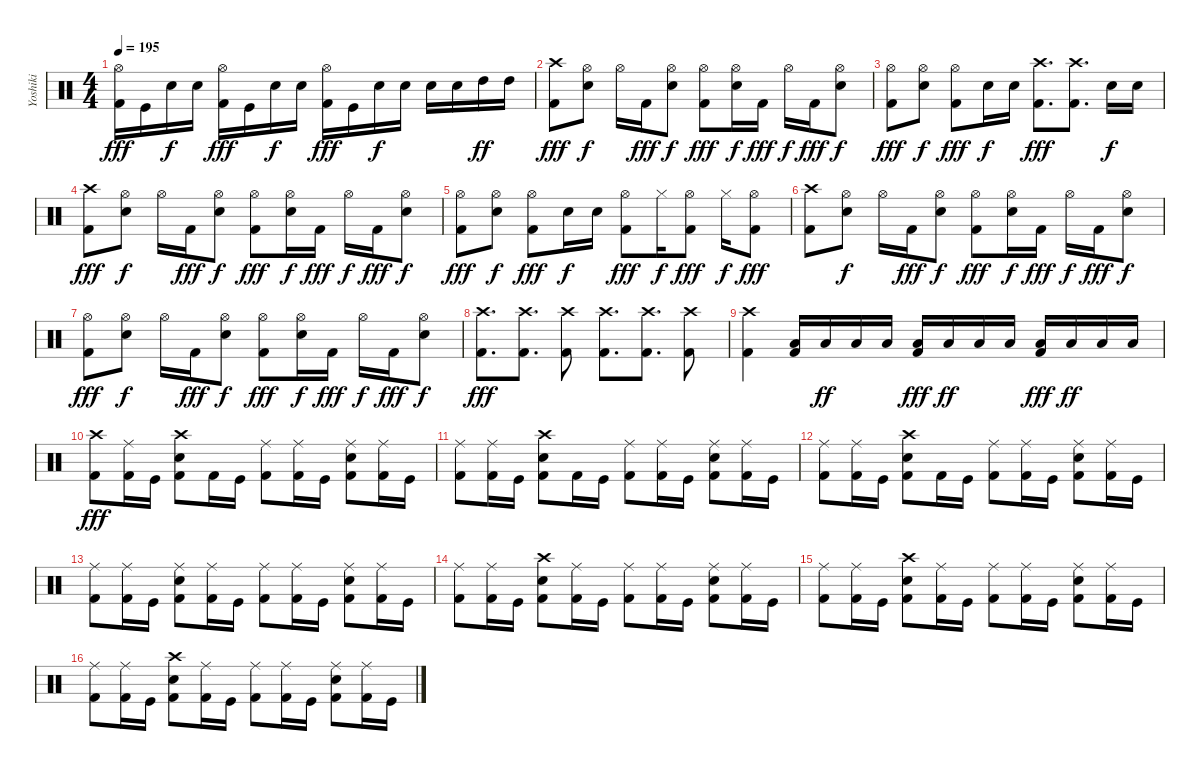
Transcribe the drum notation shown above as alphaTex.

\track ("Yoshiki" "Yoshiki") {instrument percussion}
\staff {score}
\articulation defaults
\ts (4 4)
\tempo 195
\clef neutral
\ks c
("Hi-Hat (open)" "Kick (hit) 2").16{dy fff} "Kick (hit)".16 "Electric Snare (hit)".16{dy f} "Electric Snare (hit)".16 ("Hi-Hat (open)" "Kick (hit) 2").16{dy fff} "Kick (hit)".16 "Electric Snare (hit)".16{dy f} "Electric Snare (hit)".16 ("Hi-Hat (open)" "Kick (hit) 2").16{dy fff} "Kick (hit)".16 "Electric Snare (hit)".16{dy f} "Electric Snare (hit)".16 "Electric Snare (hit)".16 "Electric Snare (hit)".16 "High Tom (hit)".16{dy ff} "High Tom (hit)".16 |
("Crash high (hit)" "Kick (hit) 2").8{dy fff} ("Hi-Hat (open)" "Electric Snare (hit)").8{dy f} "Hi-Hat (open)".16 "Kick (hit) 2".16{dy fff} ("Hi-Hat (open)" "Electric Snare (hit)").8{dy f} ("Hi-Hat (open)" "Kick (hit) 2").8{dy fff} ("Hi-Hat (open)" "Electric Snare (hit)").16{dy f} "Kick (hit) 2".16{dy fff} "Hi-Hat (open)".16{dy f} "Kick (hit) 2".16{dy fff} ("Hi-Hat (open)" "Electric Snare (hit)").8{dy f} |
("Hi-Hat (open)" "Kick (hit) 2").8{dy fff} ("Hi-Hat (open)" "Electric Snare (hit)").8{dy f} ("Hi-Hat (open)" "Kick (hit) 2").8{dy fff} "Electric Snare (hit)".16{dy f} "Electric Snare (hit)".16 ("Crash high (hit)" "Kick (hit) 2").8{d dy fff} ("Crash high (hit)" "Kick (hit) 2").8{d} "Electric Snare (hit)".16{dy f} "Electric Snare (hit)".16 |
("Crash high (hit)" "Kick (hit) 2").8{dy fff} ("Hi-Hat (open)" "Electric Snare (hit)").8{dy f} "Hi-Hat (open)".16 "Kick (hit) 2".16{dy fff} ("Hi-Hat (open)" "Electric Snare (hit)").8{dy f} ("Hi-Hat (open)" "Kick (hit) 2").8{dy fff} ("Hi-Hat (open)" "Electric Snare (hit)").16{dy f} "Kick (hit) 2".16{dy fff} "Hi-Hat (open)".16{dy f} "Kick (hit) 2".16{dy fff} ("Hi-Hat (open)" "Electric Snare (hit)").8{dy f} |
("Hi-Hat (open)" "Kick (hit) 2").8{dy fff} ("Hi-Hat (open)" "Electric Snare (hit)").8{dy f} ("Hi-Hat (open)" "Kick (hit) 2").8{dy fff} "Electric Snare (hit)".16{dy f} "Electric Snare (hit)".16 ("Hi-Hat (open)" "Kick (hit) 2").8{dy fff} "Hi-Hat (closed)".16{dy f} ("Hi-Hat (open)" "Kick (hit) 2").8{dy fff} "Hi-Hat (closed)".16{dy f} ("Hi-Hat (open)" "Kick (hit) 2").8{dy fff} |
("Crash high (hit)" "Kick (hit) 2").8 ("Hi-Hat (open)" "Electric Snare (hit)").8{dy f} "Hi-Hat (open)".16 "Kick (hit) 2".16{dy fff} ("Hi-Hat (open)" "Electric Snare (hit)").8{dy f} ("Hi-Hat (open)" "Kick (hit) 2").8{dy fff} ("Hi-Hat (open)" "Electric Snare (hit)").16{dy f} "Kick (hit) 2".16{dy fff} "Hi-Hat (open)".16{dy f} "Kick (hit) 2".16{dy fff} ("Hi-Hat (open)" "Electric Snare (hit)").8{dy f} |
("Hi-Hat (open)" "Kick (hit) 2").8{dy fff} ("Hi-Hat (open)" "Electric Snare (hit)").8{dy f} "Hi-Hat (open)".16 "Kick (hit) 2".16{dy fff} ("Hi-Hat (open)" "Electric Snare (hit)").8{dy f} ("Hi-Hat (open)" "Kick (hit) 2").8{dy fff} ("Hi-Hat (open)" "Electric Snare (hit)").16{dy f} "Kick (hit) 2".16{dy fff} "Hi-Hat (open)".16{dy f} "Kick (hit) 2".16{dy fff} ("Hi-Hat (open)" "Electric Snare (hit)").8{dy f} |
("Crash high (hit)" "Kick (hit) 2").8{d dy fff} ("Crash high (hit)" "Kick (hit) 2").8{d} ("Crash high (hit)" "Kick (hit) 2").8 ("Crash high (hit)" "Kick (hit) 2").8{d} ("Crash high (hit)" "Kick (hit) 2").8{d} ("Crash high (hit)" "Kick (hit) 2").8 |
("Crash high (hit)" "Kick (hit) 2").4 ("Low Tom (hit)" "Kick (hit) 2").16 "Low Tom (hit)".16{dy ff} "Low Tom (hit)".16 "Low Tom (hit)".16 ("Low Tom (hit)" "Kick (hit) 2").16{dy fff} "Low Tom (hit)".16{dy ff} "Low Tom (hit)".16 "Low Tom (hit)".16 ("Low Tom (hit)" "Kick (hit) 2").16{dy fff} "Low Tom (hit)".16{dy ff} "Low Tom (hit)".16 "Low Tom (hit)".16 |
("Crash high (hit)" "Kick (hit) 2").8{dy fff} ("Ride (middle)" "Kick (hit) 2").16 "Kick (hit)".16 ("Crash high (hit)" "Electric Snare (hit)" "Kick (hit) 2").8 "Kick (hit) 2".16 "Kick (hit)".16 ("Ride (middle)" "Kick (hit) 2").8 ("Ride (middle)" "Kick (hit) 2").16 "Kick (hit)".16 ("Ride (middle)" "Electric Snare (hit)" "Kick (hit) 2").8 ("Ride (middle)" "Kick (hit) 2").16 "Kick (hit)".16 |
("Ride (middle)" "Kick (hit) 2").8 ("Ride (middle)" "Kick (hit) 2").16 "Kick (hit)".16 ("Crash high (hit)" "Electric Snare (hit)" "Kick (hit) 2").8 "Kick (hit) 2".16 "Kick (hit)".16 ("Ride (middle)" "Kick (hit) 2").8 ("Ride (middle)" "Kick (hit) 2").16 "Kick (hit)".16 ("Ride (middle)" "Electric Snare (hit)" "Kick (hit) 2").8 ("Ride (middle)" "Kick (hit) 2").16 "Kick (hit)".16 |
("Ride (middle)" "Kick (hit) 2").8 ("Ride (middle)" "Kick (hit) 2").16 "Kick (hit)".16 ("Crash high (hit)" "Electric Snare (hit)" "Kick (hit) 2").8 "Kick (hit) 2".16 "Kick (hit)".16 ("Ride (middle)" "Kick (hit) 2").8 ("Ride (middle)" "Kick (hit) 2").16 "Kick (hit)".16 ("Ride (middle)" "Electric Snare (hit)" "Kick (hit) 2").8 ("Ride (middle)" "Kick (hit) 2").16 "Kick (hit)".16 |
("Ride (middle)" "Kick (hit) 2").8 ("Ride (middle)" "Kick (hit) 2").16 "Kick (hit)".16 ("Ride (middle)" "Electric Snare (hit)" "Kick (hit) 2").8 ("Ride (middle)" "Kick (hit) 2").16 "Kick (hit)".16 ("Ride (middle)" "Kick (hit) 2").8 ("Ride (middle)" "Kick (hit) 2").16 "Kick (hit)".16 ("Ride (middle)" "Electric Snare (hit)" "Kick (hit) 2").8 ("Ride (middle)" "Kick (hit) 2").16 "Kick (hit)".16 |
("Ride (middle)" "Kick (hit) 2").8 ("Ride (middle)" "Kick (hit) 2").16 "Kick (hit)".16 ("Crash high (hit)" "Electric Snare (hit)" "Kick (hit) 2").8 ("Ride (middle)" "Kick (hit) 2").16 "Kick (hit)".16 ("Ride (middle)" "Kick (hit) 2").8 ("Ride (middle)" "Kick (hit) 2").16 "Kick (hit)".16 ("Ride (middle)" "Electric Snare (hit)" "Kick (hit) 2").8 ("Ride (middle)" "Kick (hit) 2").16 "Kick (hit)".16 |
("Ride (middle)" "Kick (hit) 2").8 ("Ride (middle)" "Kick (hit) 2").16 "Kick (hit)".16 ("Crash high (hit)" "Electric Snare (hit)" "Kick (hit) 2").8 ("Ride (middle)" "Kick (hit) 2").16 "Kick (hit)".16 ("Ride (middle)" "Kick (hit) 2").8 ("Ride (middle)" "Kick (hit) 2").16 "Kick (hit)".16 ("Ride (middle)" "Electric Snare (hit)" "Kick (hit) 2").8 ("Ride (middle)" "Kick (hit) 2").16 "Kick (hit)".16 |
("Ride (middle)" "Kick (hit) 2").8 ("Ride (middle)" "Kick (hit) 2").16 "Kick (hit)".16 ("Crash high (hit)" "Electric Snare (hit)" "Kick (hit) 2").8 ("Ride (middle)" "Kick (hit) 2").16 "Kick (hit)".16 ("Ride (middle)" "Kick (hit) 2").8 ("Ride (middle)" "Kick (hit) 2").16 "Kick (hit)".16 ("Ride (middle)" "Electric Snare (hit)" "Kick (hit) 2").8 ("Ride (middle)" "Kick (hit) 2").16 "Kick (hit)".16
